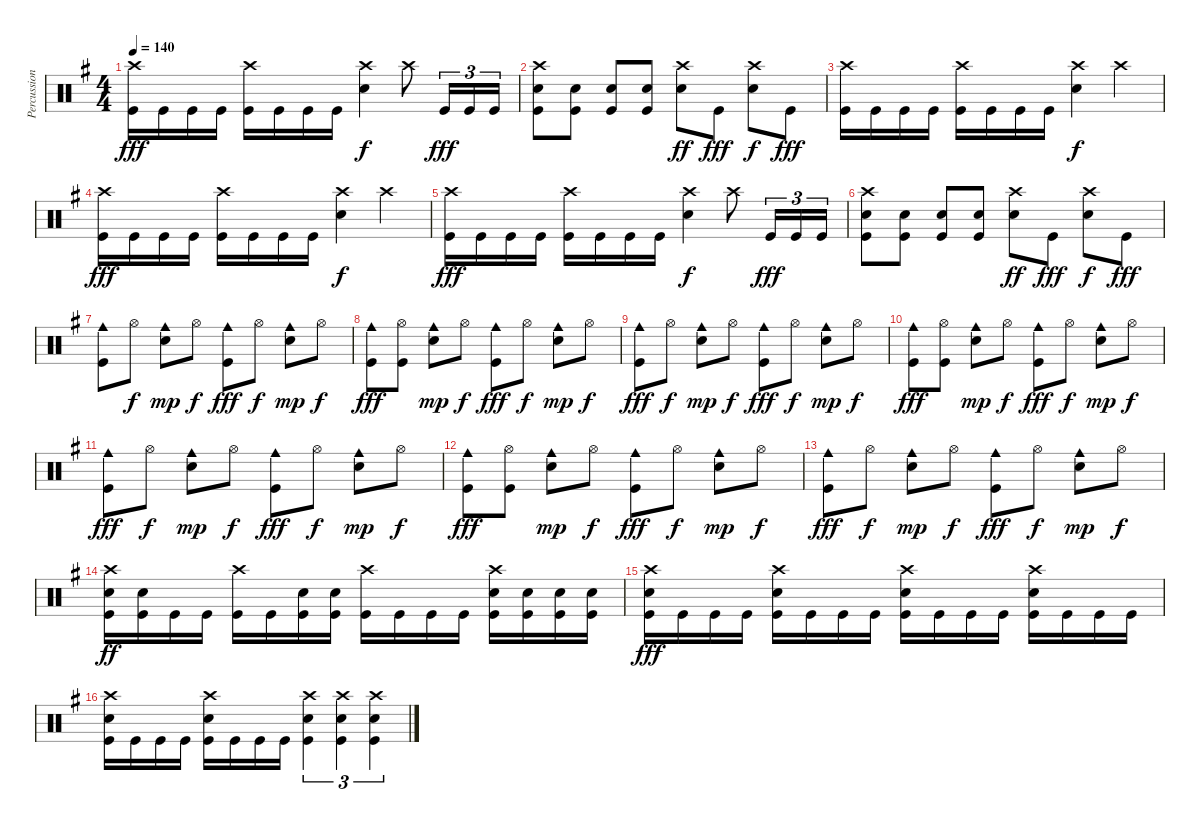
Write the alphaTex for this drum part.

\track ("Percussion" "Percussion") {instrument percussion}
\staff {score}
\articulation defaults
\ts (4 4)
\tempo 140
\clef neutral
\ks eminor
("Crash high (hit)" "Kick (hit)").16{dy fff} "Kick (hit)".16 "Kick (hit)".16 "Kick (hit)".16 ("Crash high (hit)" "Kick (hit)").16 "Kick (hit)".16 "Kick (hit)".16 "Kick (hit)".16 ("Crash high (hit)" "Snare (hit) 2").4{dy f} "Crash high (hit)".8 "Kick (hit)".16{tu (3 2) dy fff} "Kick (hit)".16{tu (3 2)} "Kick (hit)".16{tu (3 2)} |
("Crash high (hit)" "Snare (hit) 2" "Kick (hit)").8 ("Snare (hit) 2" "Kick (hit)").8 ("Snare (hit) 2" "Kick (hit)").8 ("Snare (hit) 2" "Kick (hit)").8 ("Crash high (hit)" "Snare (hit) 2").8{dy ff} "Kick (hit)".8{dy fff} ("Crash high (hit)" "Snare (hit) 2").8{dy f} "Kick (hit)".8{dy fff} |
("Crash high (hit)" "Kick (hit)").16 "Kick (hit)".16 "Kick (hit)".16 "Kick (hit)".16 ("Crash high (hit)" "Kick (hit)").16 "Kick (hit)".16 "Kick (hit)".16 "Kick (hit)".16 ("Crash high (hit)" "Snare (hit) 2").4{dy f} "Crash high (hit)".4 |
("Crash high (hit)" "Kick (hit)").16{dy fff} "Kick (hit)".16 "Kick (hit)".16 "Kick (hit)".16 ("Crash high (hit)" "Kick (hit)").16 "Kick (hit)".16 "Kick (hit)".16 "Kick (hit)".16 ("Crash high (hit)" "Snare (hit) 2").4{dy f} "Crash high (hit)".4 |
("Crash high (hit)" "Kick (hit)").16{dy fff} "Kick (hit)".16 "Kick (hit)".16 "Kick (hit)".16 ("Crash high (hit)" "Kick (hit)").16 "Kick (hit)".16 "Kick (hit)".16 "Kick (hit)".16 ("Crash high (hit)" "Snare (hit) 2").4{dy f} "Crash high (hit)".8 "Kick (hit)".16{tu (3 2) dy fff} "Kick (hit)".16{tu (3 2)} "Kick (hit)".16{tu (3 2)} |
("Crash high (hit)" "Snare (hit) 2" "Kick (hit)").8 ("Snare (hit) 2" "Kick (hit)").8 ("Snare (hit) 2" "Kick (hit)").8 ("Snare (hit) 2" "Kick (hit)").8 ("Crash high (hit)" "Snare (hit) 2").8{dy ff} "Kick (hit)".8{dy fff} ("Crash high (hit)" "Snare (hit) 2").8{dy f} "Kick (hit)".8{dy fff} |
("Cowbell medium (hit)" "Kick (hit)").8 "Hi-Hat (open)".8{dy f} ("Cowbell medium (hit)" "Snare (hit) 2").8{dy mp} "Hi-Hat (open)".8{dy f} ("Cowbell medium (hit)" "Kick (hit)").8{dy fff} "Hi-Hat (open)".8{dy f} ("Cowbell medium (hit)" "Snare (hit) 2").8{dy mp} "Hi-Hat (open)".8{dy f} |
("Cowbell medium (hit)" "Kick (hit)").8{dy fff} ("Hi-Hat (open)" "Kick (hit)").8 ("Cowbell medium (hit)" "Snare (hit) 2").8{dy mp} "Hi-Hat (open)".8{dy f} ("Cowbell medium (hit)" "Kick (hit)").8{dy fff} "Hi-Hat (open)".8{dy f} ("Cowbell medium (hit)" "Snare (hit) 2").8{dy mp} "Hi-Hat (open)".8{dy f} |
("Cowbell medium (hit)" "Kick (hit)").8{dy fff} "Hi-Hat (open)".8{dy f} ("Cowbell medium (hit)" "Snare (hit) 2").8{dy mp} "Hi-Hat (open)".8{dy f} ("Cowbell medium (hit)" "Kick (hit)").8{dy fff} "Hi-Hat (open)".8{dy f} ("Cowbell medium (hit)" "Snare (hit) 2").8{dy mp} "Hi-Hat (open)".8{dy f} |
("Cowbell medium (hit)" "Kick (hit)").8{dy fff} ("Hi-Hat (open)" "Kick (hit)").8 ("Cowbell medium (hit)" "Snare (hit) 2").8{dy mp} "Hi-Hat (open)".8{dy f} ("Cowbell medium (hit)" "Kick (hit)").8{dy fff} "Hi-Hat (open)".8{dy f} ("Cowbell medium (hit)" "Snare (hit) 2").8{dy mp} "Hi-Hat (open)".8{dy f} |
("Cowbell medium (hit)" "Kick (hit)").8{dy fff} "Hi-Hat (open)".8{dy f} ("Cowbell medium (hit)" "Snare (hit) 2").8{dy mp} "Hi-Hat (open)".8{dy f} ("Cowbell medium (hit)" "Kick (hit)").8{dy fff} "Hi-Hat (open)".8{dy f} ("Cowbell medium (hit)" "Snare (hit) 2").8{dy mp} "Hi-Hat (open)".8{dy f} |
("Cowbell medium (hit)" "Kick (hit)").8{dy fff} ("Hi-Hat (open)" "Kick (hit)").8 ("Cowbell medium (hit)" "Snare (hit) 2").8{dy mp} "Hi-Hat (open)".8{dy f} ("Cowbell medium (hit)" "Kick (hit)").8{dy fff} "Hi-Hat (open)".8{dy f} ("Cowbell medium (hit)" "Snare (hit) 2").8{dy mp} "Hi-Hat (open)".8{dy f} |
("Cowbell medium (hit)" "Kick (hit)").8{dy fff} "Hi-Hat (open)".8{dy f} ("Cowbell medium (hit)" "Snare (hit) 2").8{dy mp} "Hi-Hat (open)".8{dy f} ("Cowbell medium (hit)" "Kick (hit)").8{dy fff} "Hi-Hat (open)".8{dy f} ("Cowbell medium (hit)" "Snare (hit) 2").8{dy mp} "Hi-Hat (open)".8{dy f} |
("Crash high (hit)" "Snare (hit) 2" "Kick (hit)").16{dy ff} ("Snare (hit) 2" "Kick (hit)").16 "Kick (hit)".16 "Kick (hit)".16 ("Crash high (hit)" "Kick (hit)").16 "Kick (hit)".16 ("Snare (hit) 2" "Kick (hit)").16 ("Snare (hit) 2" "Kick (hit)").16 ("Crash high (hit)" "Kick (hit)").16 "Kick (hit)".16 "Kick (hit)".16 "Kick (hit)".16 ("Crash high (hit)" "Snare (hit) 2" "Kick (hit)").16 ("Snare (hit) 2" "Kick (hit)").16 ("Snare (hit) 2" "Kick (hit)").16 ("Snare (hit) 2" "Kick (hit)").16 |
("Crash high (hit)" "Snare (hit) 2" "Kick (hit)").16{dy fff} "Kick (hit)".16 "Kick (hit)".16 "Kick (hit)".16 ("Crash high (hit)" "Snare (hit) 2" "Kick (hit)").16 "Kick (hit)".16 "Kick (hit)".16 "Kick (hit)".16 ("Crash high (hit)" "Snare (hit) 2" "Kick (hit)").16 "Kick (hit)".16 "Kick (hit)".16 "Kick (hit)".16 ("Crash high (hit)" "Snare (hit) 2" "Kick (hit)").16 "Kick (hit)".16 "Kick (hit)".16 "Kick (hit)".16 |
("Crash high (hit)" "Snare (hit) 2" "Kick (hit)").16 "Kick (hit)".16 "Kick (hit)".16 "Kick (hit)".16 ("Crash high (hit)" "Snare (hit) 2" "Kick (hit)").16 "Kick (hit)".16 "Kick (hit)".16 "Kick (hit)".16 ("Crash high (hit)" "Snare (hit) 2" "Kick (hit)").4{tu (3 2)} ("Crash high (hit)" "Snare (hit) 2" "Kick (hit)").4{tu (3 2)} ("Crash high (hit)" "Snare (hit) 2" "Kick (hit)").4{tu (3 2)}
